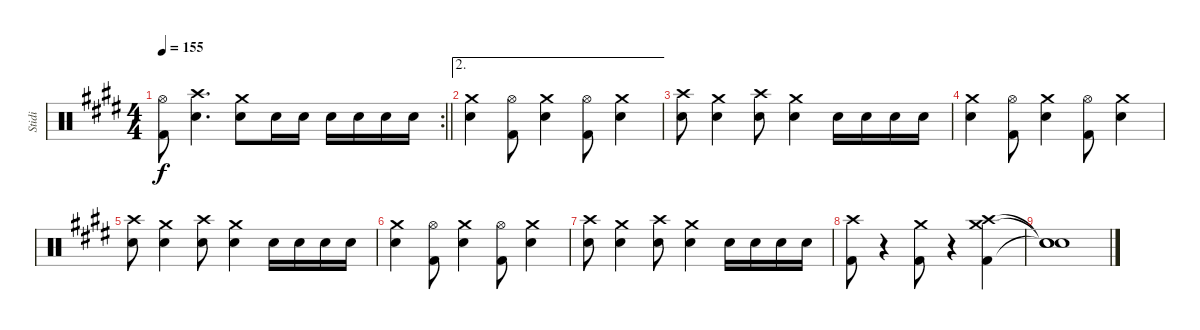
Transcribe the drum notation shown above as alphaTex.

\track ("Stidi" "Stidi") {instrument percussion}
\staff {score}
\articulation defaults
\rc 2
\ts (4 4)
\tempo 155
\clef neutral
\barLineRight lightlight
\ks e
("Hi-Hat (open)" "Kick (hit) 2").8{dy f} ("Crash high (hit)" "Snare (hit) 2").4{d} ("Crash medium (hit)" "Snare (hit) 2").8 "Snare (hit) 2".16 "Snare (hit) 2".16 "Snare (hit) 2".16 "Snare (hit) 2".16 "Snare (hit) 2".16 "Snare (hit) 2".16 |
\ae 2
("Crash medium (hit)" "Snare (hit) 2").4 ("Hi-Hat (open)" "Kick (hit) 2").8 ("Crash medium (hit)" "Snare (hit) 2").4 ("Hi-Hat (open)" "Kick (hit) 2").8 ("Crash medium (hit)" "Snare (hit) 2").4 |
("Crash high (hit)" "Snare (hit) 2").8 ("Crash medium (hit)" "Snare (hit) 2").4 ("Crash high (hit)" "Snare (hit) 2").8 ("Crash medium (hit)" "Snare (hit) 2").4 "Snare (hit) 2".16 "Snare (hit) 2".16 "Snare (hit) 2".16 "Snare (hit) 2".16 |
("Crash medium (hit)" "Snare (hit) 2").4 ("Hi-Hat (open)" "Kick (hit) 2").8 ("Crash medium (hit)" "Snare (hit) 2").4 ("Hi-Hat (open)" "Kick (hit) 2").8 ("Crash medium (hit)" "Snare (hit) 2").4 |
("Crash high (hit)" "Snare (hit) 2").8 ("Crash medium (hit)" "Snare (hit) 2").4 ("Crash high (hit)" "Snare (hit) 2").8 ("Crash medium (hit)" "Snare (hit) 2").4 "Snare (hit) 2".16 "Snare (hit) 2".16 "Snare (hit) 2".16 "Snare (hit) 2".16 |
("Crash medium (hit)" "Snare (hit) 2").4 ("Hi-Hat (open)" "Kick (hit) 2").8 ("Crash medium (hit)" "Snare (hit) 2").4 ("Hi-Hat (open)" "Kick (hit) 2").8 ("Crash medium (hit)" "Snare (hit) 2").4 |
("Crash high (hit)" "Snare (hit) 2").8 ("Crash medium (hit)" "Snare (hit) 2").4 ("Crash high (hit)" "Snare (hit) 2").8 ("Crash medium (hit)" "Snare (hit) 2").4 "Snare (hit) 2".16 "Snare (hit) 2".16 "Snare (hit) 2".16 "Snare (hit) 2".16 |
("Crash high (hit)" "Kick (hit) 2").8 r.4 ("Crash medium (hit)" "Kick (hit) 2").8 r.4 ("Crash medium (hit)" "Crash high (hit)" "Kick (hit) 2").4 |
("Snare (hit)"{t} "Snare (hit)"{t} "Snare (hit)"{t}).1
